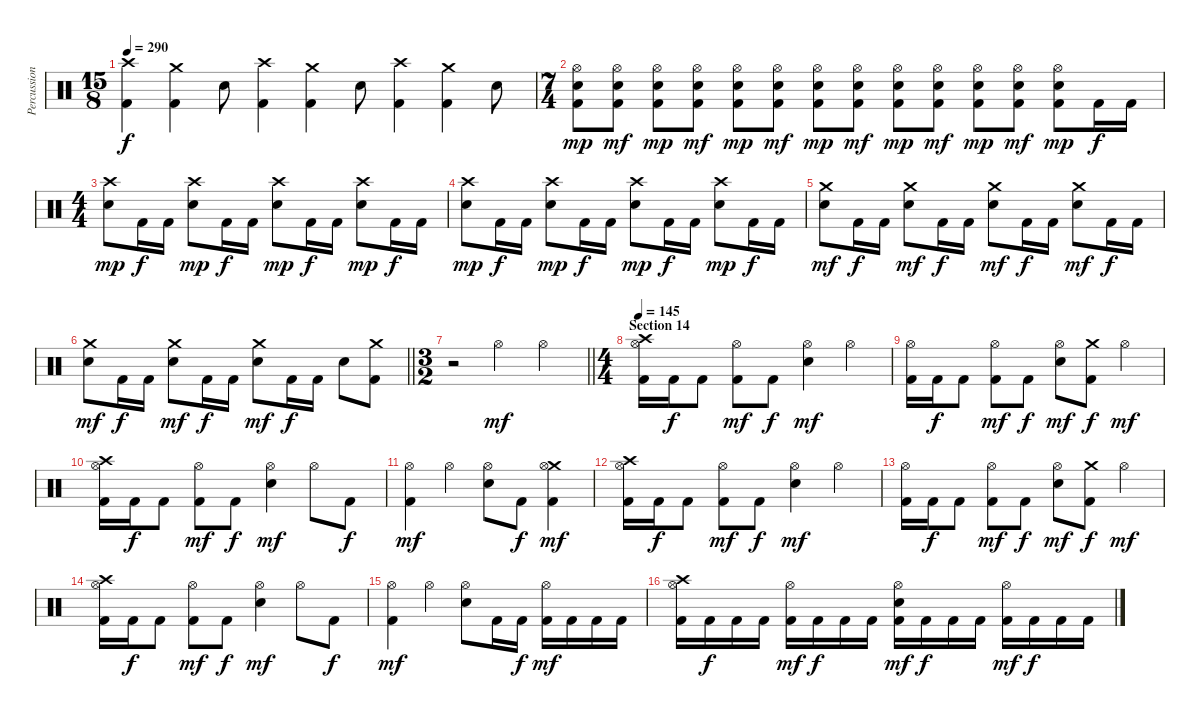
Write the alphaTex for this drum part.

\track ("Percussion" "Percussion") {instrument percussion}
\staff {score}
\articulation defaults
\ts (15 8)
\tempo 290
\clef neutral
\ks c
("Crash high (hit)" "Kick (hit) 2").4{dy f} ("Crash medium (hit)" "Kick (hit) 2").4 "Electric Snare (hit)".8 ("Crash high (hit)" "Kick (hit) 2").4 ("Crash medium (hit)" "Kick (hit) 2").4 "Electric Snare (hit)".8 ("Crash high (hit)" "Kick (hit) 2").4 ("Crash medium (hit)" "Kick (hit) 2").4 "Electric Snare (hit)".8 |
\ts (7 4)
("Hi-Hat (open)" "Electric Snare (hit)" "Kick (hit) 2").8{dy mp} ("Hi-Hat (open)" "Electric Snare (hit)" "Kick (hit) 2").8{dy mf} ("Hi-Hat (open)" "Electric Snare (hit)" "Kick (hit) 2").8{dy mp} ("Hi-Hat (open)" "Electric Snare (hit)" "Kick (hit) 2").8{dy mf} ("Hi-Hat (open)" "Electric Snare (hit)" "Kick (hit) 2").8{dy mp} ("Hi-Hat (open)" "Electric Snare (hit)" "Kick (hit) 2").8{dy mf} ("Hi-Hat (open)" "Electric Snare (hit)" "Kick (hit) 2").8{dy mp} ("Hi-Hat (open)" "Electric Snare (hit)" "Kick (hit) 2").8{dy mf} ("Hi-Hat (open)" "Electric Snare (hit)" "Kick (hit) 2").8{dy mp} ("Hi-Hat (open)" "Electric Snare (hit)" "Kick (hit) 2").8{dy mf} ("Hi-Hat (open)" "Electric Snare (hit)" "Kick (hit) 2").8{dy mp} ("Hi-Hat (open)" "Electric Snare (hit)" "Kick (hit) 2").8{dy mf} ("Hi-Hat (open)" "Electric Snare (hit)" "Kick (hit) 2").8{dy mp} "Kick (hit) 2".16{dy f} "Kick (hit) 2".16 |
\ts (4 4)
("Crash high (hit)" "Electric Snare (hit)").8{dy mp} "Kick (hit) 2".16{dy f} "Kick (hit) 2".16 ("Crash high (hit)" "Electric Snare (hit)").8{dy mp} "Kick (hit) 2".16{dy f} "Kick (hit) 2".16 ("Crash high (hit)" "Electric Snare (hit)").8{dy mp} "Kick (hit) 2".16{dy f} "Kick (hit) 2".16 ("Crash high (hit)" "Electric Snare (hit)").8{dy mp} "Kick (hit) 2".16{dy f} "Kick (hit) 2".16 |
("Crash high (hit)" "Electric Snare (hit)").8{dy mp} "Kick (hit) 2".16{dy f} "Kick (hit) 2".16 ("Crash high (hit)" "Electric Snare (hit)").8{dy mp} "Kick (hit) 2".16{dy f} "Kick (hit) 2".16 ("Crash high (hit)" "Electric Snare (hit)").8{dy mp} "Kick (hit) 2".16{dy f} "Kick (hit) 2".16 ("Crash high (hit)" "Electric Snare (hit)").8{dy mp} "Kick (hit) 2".16{dy f} "Kick (hit) 2".16 |
("Crash medium (hit)" "Electric Snare (hit)").8{dy mf} "Kick (hit) 2".16{dy f} "Kick (hit) 2".16 ("Crash medium (hit)" "Electric Snare (hit)").8{dy mf} "Kick (hit) 2".16{dy f} "Kick (hit) 2".16 ("Crash medium (hit)" "Electric Snare (hit)").8{dy mf} "Kick (hit) 2".16{dy f} "Kick (hit) 2".16 ("Crash medium (hit)" "Electric Snare (hit)").8{dy mf} "Kick (hit) 2".16{dy f} "Kick (hit) 2".16 |
\barLineRight lightlight
("Crash medium (hit)" "Electric Snare (hit)").8{dy mf} "Kick (hit) 2".16{dy f} "Kick (hit) 2".16 ("Crash medium (hit)" "Electric Snare (hit)").8{dy mf} "Kick (hit) 2".16{dy f} "Kick (hit) 2".16 ("Crash medium (hit)" "Electric Snare (hit)").8{dy mf} "Kick (hit) 2".16{dy f} "Kick (hit) 2".16 "Electric Snare (hit)".8 ("Crash medium (hit)" "Kick (hit) 2").8 |
\ts (3 2)
\section ("" "")
\barLineRight lightlight
r.2 "Hi-Hat (open)".2{dy mf} "Hi-Hat (open)".2 |
\ts (4 4)
\section ("" "Section 14")
\tempo 145
("Crash high (hit)" "Hi-Hat (open)" "Kick (hit) 2").16 "Kick (hit) 2".16{dy f} "Kick (hit) 2".8 ("Hi-Hat (open)" "Kick (hit) 2").8{dy mf} "Kick (hit) 2".8{dy f} ("Hi-Hat (open)" "Electric Snare (hit)").4{dy mf} "Hi-Hat (open)".4 |
("Hi-Hat (open)" "Kick (hit) 2").16 "Kick (hit) 2".16{dy f} "Kick (hit) 2".8 ("Hi-Hat (open)" "Kick (hit) 2").8{dy mf} "Kick (hit) 2".8{dy f} ("Hi-Hat (open)" "Electric Snare (hit)").8{dy mf} ("Crash medium (hit)" "Kick (hit) 2").8{dy f} "Hi-Hat (open)".4{dy mf} |
("Crash high (hit)" "Hi-Hat (open)" "Kick (hit) 2").16 "Kick (hit) 2".16{dy f} "Kick (hit) 2".8 ("Hi-Hat (open)" "Kick (hit) 2").8{dy mf} "Kick (hit) 2".8{dy f} ("Hi-Hat (open)" "Electric Snare (hit)").4{dy mf} "Hi-Hat (open)".8 "Kick (hit) 2".8{dy f} |
("Hi-Hat (open)" "Kick (hit) 2").4{dy mf} "Hi-Hat (open)".4 ("Hi-Hat (open)" "Electric Snare (hit)").8 "Kick (hit) 2".8{dy f} ("Crash medium (hit)" "Hi-Hat (open)" "Kick (hit) 2").4{dy mf} |
("Crash high (hit)" "Hi-Hat (open)" "Kick (hit) 2").16 "Kick (hit) 2".16{dy f} "Kick (hit) 2".8 ("Hi-Hat (open)" "Kick (hit) 2").8{dy mf} "Kick (hit) 2".8{dy f} ("Hi-Hat (open)" "Electric Snare (hit)").4{dy mf} "Hi-Hat (open)".4 |
("Hi-Hat (open)" "Kick (hit) 2").16 "Kick (hit) 2".16{dy f} "Kick (hit) 2".8 ("Hi-Hat (open)" "Kick (hit) 2").8{dy mf} "Kick (hit) 2".8{dy f} ("Hi-Hat (open)" "Electric Snare (hit)").8{dy mf} ("Crash medium (hit)" "Kick (hit) 2").8{dy f} "Hi-Hat (open)".4{dy mf} |
("Crash high (hit)" "Hi-Hat (open)" "Kick (hit) 2").16 "Kick (hit) 2".16{dy f} "Kick (hit) 2".8 ("Hi-Hat (open)" "Kick (hit) 2").8{dy mf} "Kick (hit) 2".8{dy f} ("Hi-Hat (open)" "Electric Snare (hit)").4{dy mf} "Hi-Hat (open)".8 "Kick (hit) 2".8{dy f} |
("Hi-Hat (open)" "Kick (hit) 2").4{dy mf} "Hi-Hat (open)".4 ("Hi-Hat (open)" "Electric Snare (hit)").8 "Kick (hit) 2".16 "Kick (hit) 2".16{dy f} ("Hi-Hat (open)" "Kick (hit) 2").16{dy mf} "Kick (hit) 2".16 "Kick (hit) 2".16 "Kick (hit) 2".16 |
("Crash high (hit)" "Hi-Hat (open)" "Kick (hit) 2").16 "Kick (hit) 2".16{dy f} "Kick (hit) 2".16 "Kick (hit) 2".16 ("Hi-Hat (open)" "Kick (hit) 2").16{dy mf} "Kick (hit) 2".16{dy f} "Kick (hit) 2".16 "Kick (hit) 2".16 ("Hi-Hat (open)" "Electric Snare (hit)" "Kick (hit) 2").16{dy mf} "Kick (hit) 2".16{dy f} "Kick (hit) 2".16 "Kick (hit) 2".16 ("Hi-Hat (open)" "Kick (hit) 2").16{dy mf} "Kick (hit) 2".16{dy f} "Kick (hit) 2".16 "Kick (hit) 2".16
